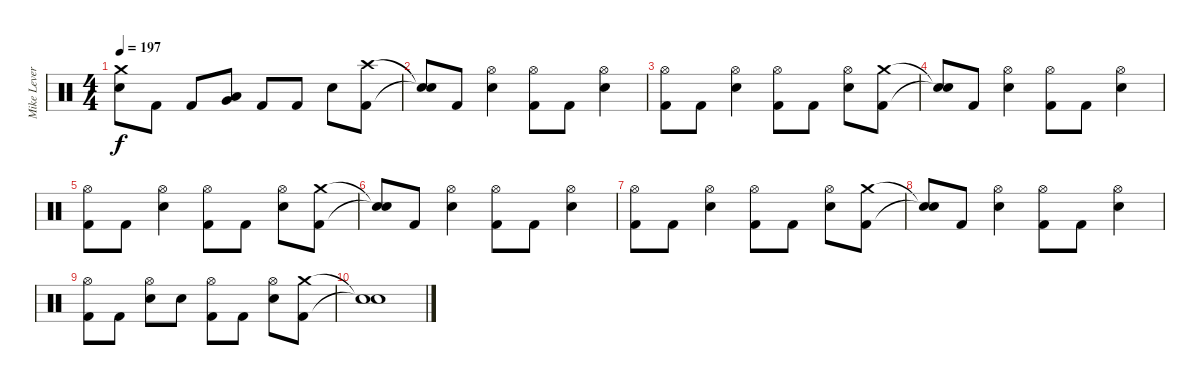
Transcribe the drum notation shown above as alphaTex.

\track ("Mike Leverence - Drums" "Mike Lever") {instrument percussion}
\staff {score}
\articulation defaults
\ts (4 4)
\tempo 197
\clef neutral
\ks c
("Crash medium (hit)" "Electric Snare (hit)").8{dy f} "Kick (hit) 2".8 "Kick (hit) 2".8 ("Low Tom (hit)" "Very Low Tom (hit)").8 "Kick (hit) 2".8 "Kick (hit) 2".8 "Electric Snare (hit)".8 ("Crash high (hit)" "Kick (hit) 2").8 |
("Snare (hit)"{t} "Snare (hit)"{t}).8 "Kick (hit) 2".8 ("Hi-Hat (open)" "Electric Snare (hit)").4 ("Hi-Hat (open)" "Kick (hit) 2").8 "Kick (hit) 2".8 ("Hi-Hat (open)" "Electric Snare (hit)").4 |
("Hi-Hat (open)" "Kick (hit) 2").8 "Kick (hit) 2".8 ("Hi-Hat (open)" "Electric Snare (hit)").4 ("Hi-Hat (open)" "Kick (hit) 2").8 "Kick (hit) 2".8 ("Hi-Hat (open)" "Electric Snare (hit)").8 ("Crash medium (hit)" "Kick (hit) 2").8 |
("Snare (hit)"{t} "Snare (hit)"{t}).8 "Kick (hit) 2".8 ("Hi-Hat (open)" "Electric Snare (hit)").4 ("Hi-Hat (open)" "Kick (hit) 2").8 "Kick (hit) 2".8 ("Hi-Hat (open)" "Electric Snare (hit)").4 |
("Hi-Hat (open)" "Kick (hit) 2").8 "Kick (hit) 2".8 ("Hi-Hat (open)" "Electric Snare (hit)").4 ("Hi-Hat (open)" "Kick (hit) 2").8 "Kick (hit) 2".8 ("Hi-Hat (open)" "Electric Snare (hit)").8 ("Crash medium (hit)" "Kick (hit) 2").8 |
("Snare (hit)"{t} "Snare (hit)"{t}).8 "Kick (hit) 2".8 ("Hi-Hat (open)" "Electric Snare (hit)").4 ("Hi-Hat (open)" "Kick (hit) 2").8 "Kick (hit) 2".8 ("Hi-Hat (open)" "Electric Snare (hit)").4 |
("Hi-Hat (open)" "Kick (hit) 2").8 "Kick (hit) 2".8 ("Hi-Hat (open)" "Electric Snare (hit)").4 ("Hi-Hat (open)" "Kick (hit) 2").8 "Kick (hit) 2".8 ("Hi-Hat (open)" "Electric Snare (hit)").8 ("Crash medium (hit)" "Kick (hit) 2").8 |
("Snare (hit)"{t} "Snare (hit)"{t}).8 "Kick (hit) 2".8 ("Hi-Hat (open)" "Electric Snare (hit)").4 ("Hi-Hat (open)" "Kick (hit) 2").8 "Kick (hit) 2".8 ("Hi-Hat (open)" "Electric Snare (hit)").4 |
("Hi-Hat (open)" "Kick (hit) 2").8 "Kick (hit) 2".8 ("Hi-Hat (open)" "Electric Snare (hit)").8 "Electric Snare (hit)".8 ("Hi-Hat (open)" "Kick (hit) 2").8 "Kick (hit) 2".8 ("Hi-Hat (open)" "Electric Snare (hit)").8 ("Crash medium (hit)" "Kick (hit) 2").8 |
("Snare (hit)"{t} "Snare (hit)"{t}).1
